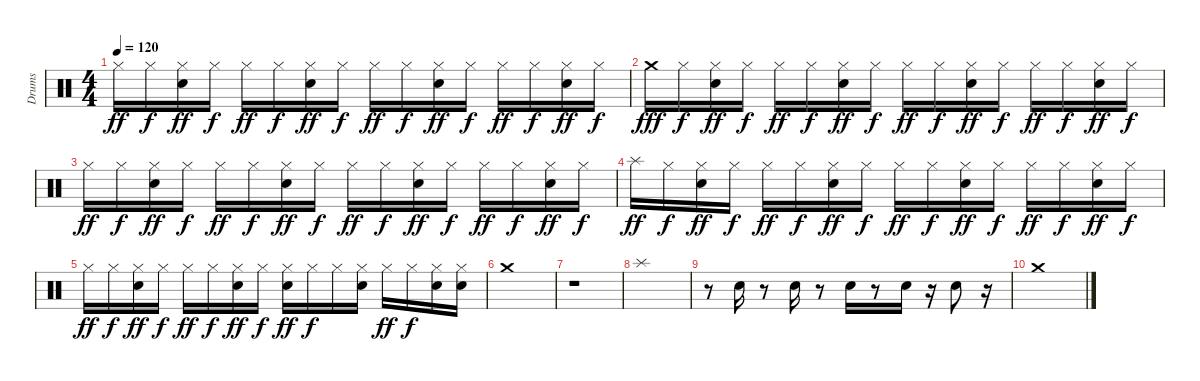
\track ("Drums" "Drums") {instrument percussion}
\staff {score}
\articulation defaults
\ts (4 4)
\tempo 120
\clef neutral
\ks c "Hi-Hat (closed)".16{dy ff} "Hi-Hat (closed)".16{dy f}
("Hi-Hat (closed)" "Snare (hit) 2").16{dy ff} "Hi-Hat (closed)".16{dy f} "Hi-Hat (closed)".16{dy ff} "Hi-Hat (closed)".16{dy f} ("Hi-Hat (closed)" "Snare (hit) 2").16{dy ff} "Hi-Hat (closed)".16{dy f} "Hi-Hat (closed)".16{dy ff} "Hi-Hat (closed)".16{dy f} ("Hi-Hat (closed)" "Snare (hit) 2").16{dy ff} "Hi-Hat (closed)".16{dy f} "Hi-Hat (closed)".16{dy ff} "Hi-Hat (closed)".16{dy f} ("Hi-Hat (closed)" "Snare (hit) 2").16{dy ff} "Hi-Hat (closed)".16{dy f} |
"Crash medium (hit)".16{dy fff} "Hi-Hat (closed)".16{dy f} ("Hi-Hat (closed)" "Snare (hit) 2").16{dy ff} "Hi-Hat (closed)".16{dy f} "Hi-Hat (closed)".16{dy ff} "Hi-Hat (closed)".16{dy f} ("Hi-Hat (closed)" "Snare (hit) 2").16{dy ff} "Hi-Hat (closed)".16{dy f} "Hi-Hat (closed)".16{dy ff} "Hi-Hat (closed)".16{dy f} ("Hi-Hat (closed)" "Snare (hit) 2").16{dy ff} "Hi-Hat (closed)".16{dy f} "Hi-Hat (closed)".16{dy ff} "Hi-Hat (closed)".16{dy f} ("Hi-Hat (closed)" "Snare (hit) 2").16{dy ff} "Hi-Hat (closed)".16{dy f} |
"Hi-Hat (closed)".16{dy ff} "Hi-Hat (closed)".16{dy f} ("Hi-Hat (closed)" "Snare (hit) 2").16{dy ff} "Hi-Hat (closed)".16{dy f} "Hi-Hat (closed)".16{dy ff} "Hi-Hat (closed)".16{dy f} ("Hi-Hat (closed)" "Snare (hit) 2").16{dy ff} "Hi-Hat (closed)".16{dy f} "Hi-Hat (closed)".16{dy ff} "Hi-Hat (closed)".16{dy f} ("Hi-Hat (closed)" "Snare (hit) 2").16{dy ff} "Hi-Hat (closed)".16{dy f} "Hi-Hat (closed)".16{dy ff} "Hi-Hat (closed)".16{dy f} ("Hi-Hat (closed)" "Snare (hit) 2").16{dy ff} "Hi-Hat (closed)".16{dy f} |
"Splash (hit)".16{dy ff} "Hi-Hat (closed)".16{dy f} ("Hi-Hat (closed)" "Snare (hit) 2").16{dy ff} "Hi-Hat (closed)".16{dy f} "Hi-Hat (closed)".16{dy ff} "Hi-Hat (closed)".16{dy f} ("Hi-Hat (closed)" "Snare (hit) 2").16{dy ff} "Hi-Hat (closed)".16{dy f} "Hi-Hat (closed)".16{dy ff} "Hi-Hat (closed)".16{dy f} ("Hi-Hat (closed)" "Snare (hit) 2").16{dy ff} "Hi-Hat (closed)".16{dy f} "Hi-Hat (closed)".16{dy ff} "Hi-Hat (closed)".16{dy f} ("Hi-Hat (closed)" "Snare (hit) 2").16{dy ff} "Hi-Hat (closed)".16{dy f} |
"Hi-Hat (closed)".16{dy ff} "Hi-Hat (closed)".16{dy f} ("Hi-Hat (closed)" "Snare (hit) 2").16{dy ff} "Hi-Hat (closed)".16{dy f} "Hi-Hat (closed)".16{dy ff} "Hi-Hat (closed)".16{dy f} ("Hi-Hat (closed)" "Snare (hit) 2").16{dy ff} "Hi-Hat (closed)".16{dy f} ("Hi-Hat (closed)" "Snare (hit) 2").16{dy ff} "Hi-Hat (closed)".16{dy f} "Hi-Hat (closed)".16 ("Hi-Hat (closed)" "Snare (hit) 2").16 "Hi-Hat (closed)".16{dy ff} "Hi-Hat (closed)".16{dy f} ("Hi-Hat (closed)" "Snare (hit) 2").16 ("Hi-Hat (closed)" "Snare (hit) 2").16 |
"Crash medium (hit)".1 |
r.1 |
"Splash (hit)".1 |
r.8 "Snare (hit) 2".16 r.8 "Snare (hit) 2".16 r.8 "Snare (hit) 2".16 r.8 "Snare (hit) 2".16 r.16 "Snare (hit) 2".8 r.16 |
"Crash medium (hit)".1
